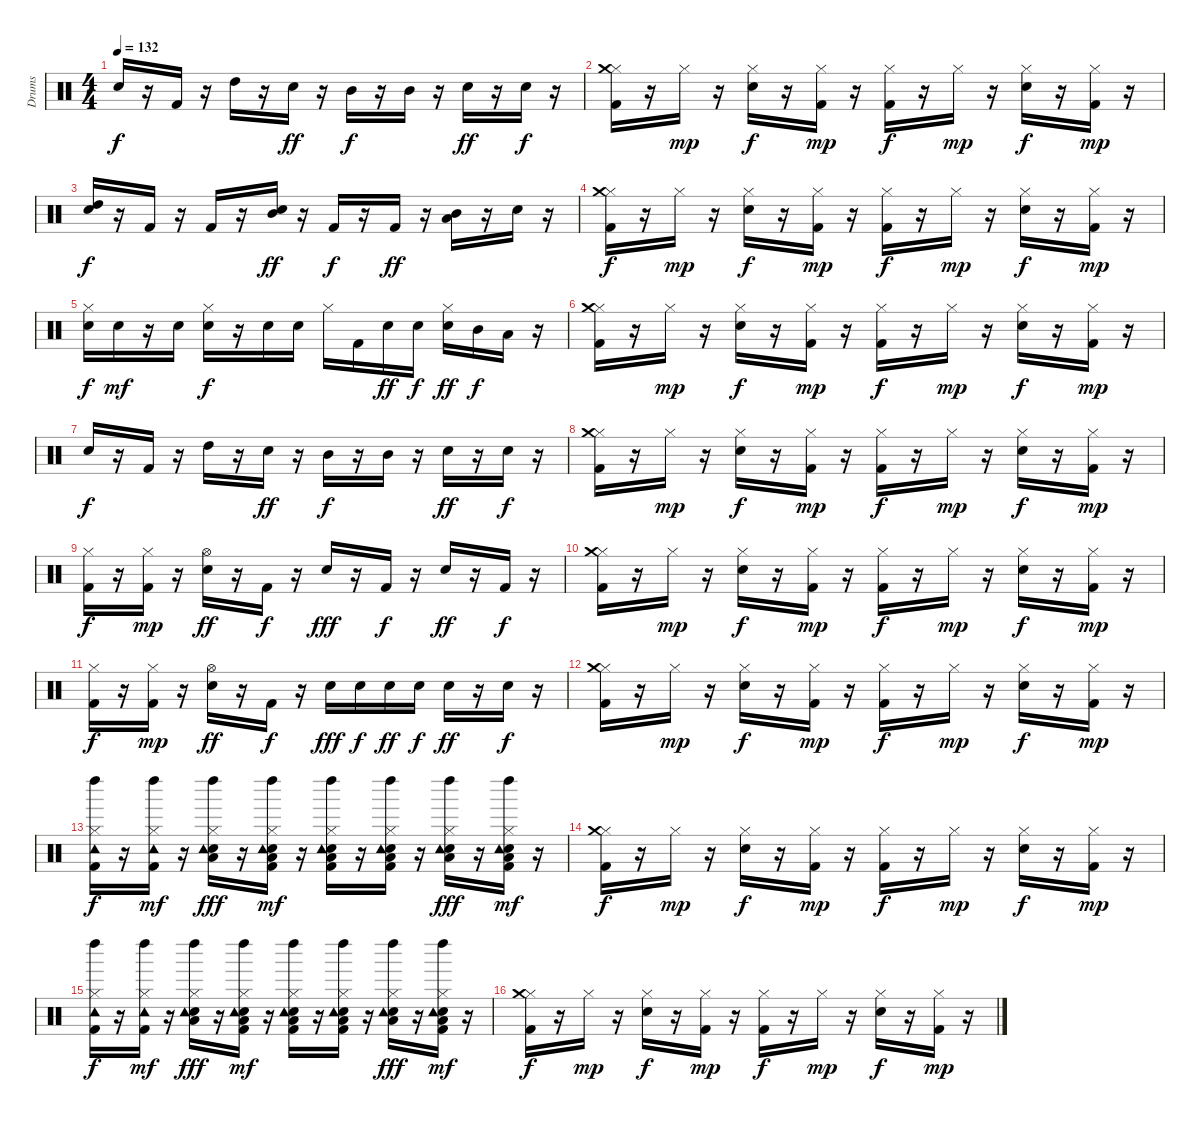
\track ("Drums" "Drums") {instrument percussion}
\staff {score}
\articulation defaults
\ts (4 4)
\tempo 132
\clef neutral
\ks c "Snare (hit) 2".16{dy f}
r.16 "Kick (hit) 2".16 r.16 "High Tom (hit)".16 r.16 "Snare (hit) 2".16{dy ff} r.16 "Mid Tom (hit)".16{dy f} r.16 "Mid Tom (hit)".16 r.16 "Snare (hit) 2".16{dy ff} r.16 "Snare (hit) 2".16{dy f} r.16 |
("Kick (hit) 2" "Hi-Hat (closed)" "Crash medium (hit)").16 r.16 "Hi-Hat (closed)".16{dy mp} r.16 ("Snare (hit) 2" "Hi-Hat (closed)").16{dy f} r.16 ("Kick (hit) 2" "Hi-Hat (closed)").16{dy mp} r.16 ("Kick (hit) 2" "Hi-Hat (closed)").16{dy f} r.16 "Hi-Hat (closed)".16{dy mp} r.16 ("Snare (hit) 2" "Hi-Hat (closed)").16{dy f} r.16 ("Kick (hit) 2" "Hi-Hat (closed)").16{dy mp} r.16 |
("Snare (hit) 2" "High Tom (hit)").16{dy f} r.16 "Kick (hit) 2".16 r.16 "Kick (hit) 2".16 r.16 ("Snare (hit) 2" "Mid Tom (hit)").16{dy ff} r.16 "Kick (hit) 2".16{dy f} r.16 "Kick (hit) 2".16{dy ff} r.16 ("Low Floor Tom (hit)" "Mid Tom (hit)").16 r.16 "Snare (hit) 2".16 r.16 |
("Kick (hit) 2" "Hi-Hat (closed)" "Crash medium (hit)").16{dy f} r.16 "Hi-Hat (closed)".16{dy mp} r.16 ("Snare (hit) 2" "Hi-Hat (closed)").16{dy f} r.16 ("Kick (hit) 2" "Hi-Hat (closed)").16{dy mp} r.16 ("Kick (hit) 2" "Hi-Hat (closed)").16{dy f} r.16 "Hi-Hat (closed)".16{dy mp} r.16 ("Snare (hit) 2" "Hi-Hat (closed)").16{dy f} r.16 ("Kick (hit) 2" "Hi-Hat (closed)").16{dy mp} r.16 |
("Snare (hit) 2" "Hi-Hat (closed)").16{dy f} "Snare (hit) 2".16{dy mf} r.16 "Snare (hit) 2".16 ("Snare (hit) 2" "Hi-Hat (closed)").16{dy f} r.16 "Snare (hit) 2".16 "Snare (hit) 2".16 "Hi-Hat (closed)".16 "Kick (hit) 2".16 "Snare (hit) 2".16{dy ff} "Snare (hit) 2".16{dy f} ("Snare (hit) 2" "Hi-Hat (closed)").16{dy ff} "Mid Tom (hit)".16{dy f} "Low Floor Tom (hit)".16 r.16 |
("Kick (hit) 2" "Hi-Hat (closed)" "Crash medium (hit)").16 r.16 "Hi-Hat (closed)".16{dy mp} r.16 ("Snare (hit) 2" "Hi-Hat (closed)").16{dy f} r.16 ("Kick (hit) 2" "Hi-Hat (closed)").16{dy mp} r.16 ("Kick (hit) 2" "Hi-Hat (closed)").16{dy f} r.16 "Hi-Hat (closed)".16{dy mp} r.16 ("Snare (hit) 2" "Hi-Hat (closed)").16{dy f} r.16 ("Kick (hit) 2" "Hi-Hat (closed)").16{dy mp} r.16 |
"Snare (hit) 2".16{dy f} r.16 "Kick (hit) 2".16 r.16 "High Tom (hit)".16 r.16 "Snare (hit) 2".16{dy ff} r.16 "Mid Tom (hit)".16{dy f} r.16 "Mid Tom (hit)".16 r.16 "Snare (hit) 2".16{dy ff} r.16 "Snare (hit) 2".16{dy f} r.16 |
("Kick (hit) 2" "Hi-Hat (closed)" "Crash medium (hit)").16 r.16 "Hi-Hat (closed)".16{dy mp} r.16 ("Snare (hit) 2" "Hi-Hat (closed)").16{dy f} r.16 ("Kick (hit) 2" "Hi-Hat (closed)").16{dy mp} r.16 ("Kick (hit) 2" "Hi-Hat (closed)").16{dy f} r.16 "Hi-Hat (closed)".16{dy mp} r.16 ("Snare (hit) 2" "Hi-Hat (closed)").16{dy f} r.16 ("Kick (hit) 2" "Hi-Hat (closed)").16{dy mp} r.16 |
("Kick (hit) 2" "Hi-Hat (closed)").16{dy f} r.16 ("Kick (hit) 2" "Hi-Hat (closed)").16{dy mp} r.16 ("Snare (hit) 2" "Hi-Hat (open)").16{dy ff} r.16 "Kick (hit) 2".16{dy f} r.16 "Snare (hit) 2".16{dy fff} r.16 "Kick (hit) 2".16{dy f} r.16 "Snare (hit) 2".16{dy ff} r.16 "Kick (hit) 2".16{dy f} r.16 |
("Kick (hit) 2" "Hi-Hat (closed)" "Crash medium (hit)").16 r.16 "Hi-Hat (closed)".16{dy mp} r.16 ("Snare (hit) 2" "Hi-Hat (closed)").16{dy f} r.16 ("Kick (hit) 2" "Hi-Hat (closed)").16{dy mp} r.16 ("Kick (hit) 2" "Hi-Hat (closed)").16{dy f} r.16 "Hi-Hat (closed)".16{dy mp} r.16 ("Snare (hit) 2" "Hi-Hat (closed)").16{dy f} r.16 ("Kick (hit) 2" "Hi-Hat (closed)").16{dy mp} r.16 |
("Kick (hit) 2" "Hi-Hat (closed)").16{dy f} r.16 ("Kick (hit) 2" "Hi-Hat (closed)").16{dy mp} r.16 ("Snare (hit) 2" "Hi-Hat (open)").16{dy ff} r.16 "Kick (hit) 2".16{dy f} r.16 "Snare (hit) 2".16{dy fff} "Snare (hit) 2".16{dy f} "Snare (hit) 2".16{dy ff} "Snare (hit) 2".16{dy f} "Snare (hit) 2".16{dy ff} r.16 "Snare (hit) 2".16{dy f} r.16 |
("Kick (hit) 2" "Hi-Hat (closed)" "Crash medium (hit)").16 r.16 "Hi-Hat (closed)".16{dy mp} r.16 ("Snare (hit) 2" "Hi-Hat (closed)").16{dy f} r.16 ("Kick (hit) 2" "Hi-Hat (closed)").16{dy mp} r.16 ("Kick (hit) 2" "Hi-Hat (closed)").16{dy f} r.16 "Hi-Hat (closed)".16{dy mp} r.16 ("Snare (hit) 2" "Hi-Hat (closed)").16{dy f} r.16 ("Kick (hit) 2" "Hi-Hat (closed)").16{dy mp} r.16 |
("Kick (hit) 2" "Hi-Hat (closed)" "Tambourine (hit)" "Left Maraca (hit)").16{dy f} r.16 ("Kick (hit) 2" "Hi-Hat (closed)" "Tambourine (hit)" "Left Maraca (hit)").16{dy mf} r.16 ("Snare (hit) 2" "Hi-Hat (closed)" "Low Floor Tom (hit)" "Tambourine (hit)" "Left Maraca (hit)").16{dy fff} r.16 ("Kick (hit) 2" "Snare (hit) 2" "Hi-Hat (closed)" "Low Floor Tom (hit)" "Tambourine (hit)" "Left Maraca (hit)").16{dy mf} r.16 ("Kick (hit) 2" "Snare (hit) 2" "Hi-Hat (closed)" "Low Floor Tom (hit)" "Tambourine (hit)" "Left Maraca (hit)").16 r.16 ("Kick (hit) 2" "Snare (hit) 2" "Hi-Hat (closed)" "Low Floor Tom (hit)" "Tambourine (hit)" "Left Maraca (hit)").16 r.16 ("Snare (hit) 2" "Hi-Hat (closed)" "Low Floor Tom (hit)" "Tambourine (hit)" "Left Maraca (hit)").16{dy fff} r.16 ("Kick (hit) 2" "Snare (hit) 2" "Hi-Hat (closed)" "Low Floor Tom (hit)" "Tambourine (hit)" "Left Maraca (hit)").16{dy mf} r.16 |
("Kick (hit) 2" "Hi-Hat (closed)" "Crash medium (hit)").16{dy f} r.16 "Hi-Hat (closed)".16{dy mp} r.16 ("Snare (hit) 2" "Hi-Hat (closed)").16{dy f} r.16 ("Kick (hit) 2" "Hi-Hat (closed)").16{dy mp} r.16 ("Kick (hit) 2" "Hi-Hat (closed)").16{dy f} r.16 "Hi-Hat (closed)".16{dy mp} r.16 ("Snare (hit) 2" "Hi-Hat (closed)").16{dy f} r.16 ("Kick (hit) 2" "Hi-Hat (closed)").16{dy mp} r.16 |
("Kick (hit) 2" "Hi-Hat (closed)" "Tambourine (hit)" "Left Maraca (hit)").16{dy f} r.16 ("Kick (hit) 2" "Hi-Hat (closed)" "Tambourine (hit)" "Left Maraca (hit)").16{dy mf} r.16 ("Snare (hit) 2" "Hi-Hat (closed)" "Low Floor Tom (hit)" "Tambourine (hit)" "Left Maraca (hit)").16{dy fff} r.16 ("Kick (hit) 2" "Snare (hit) 2" "Hi-Hat (closed)" "Low Floor Tom (hit)" "Tambourine (hit)" "Left Maraca (hit)").16{dy mf} r.16 ("Kick (hit) 2" "Snare (hit) 2" "Hi-Hat (closed)" "Low Floor Tom (hit)" "Tambourine (hit)" "Left Maraca (hit)").16 r.16 ("Kick (hit) 2" "Snare (hit) 2" "Hi-Hat (closed)" "Low Floor Tom (hit)" "Tambourine (hit)" "Left Maraca (hit)").16 r.16 ("Snare (hit) 2" "Hi-Hat (closed)" "Low Floor Tom (hit)" "Tambourine (hit)" "Left Maraca (hit)").16{dy fff} r.16 ("Kick (hit) 2" "Snare (hit) 2" "Hi-Hat (closed)" "Low Floor Tom (hit)" "Tambourine (hit)" "Left Maraca (hit)").16{dy mf} r.16 |
("Kick (hit) 2" "Hi-Hat (closed)" "Crash medium (hit)").16{dy f} r.16 "Hi-Hat (closed)".16{dy mp} r.16 ("Snare (hit) 2" "Hi-Hat (closed)").16{dy f} r.16 ("Kick (hit) 2" "Hi-Hat (closed)").16{dy mp} r.16 ("Kick (hit) 2" "Hi-Hat (closed)").16{dy f} r.16 "Hi-Hat (closed)".16{dy mp} r.16 ("Snare (hit) 2" "Hi-Hat (closed)").16{dy f} r.16 ("Kick (hit) 2" "Hi-Hat (closed)").16{dy mp} r.16
